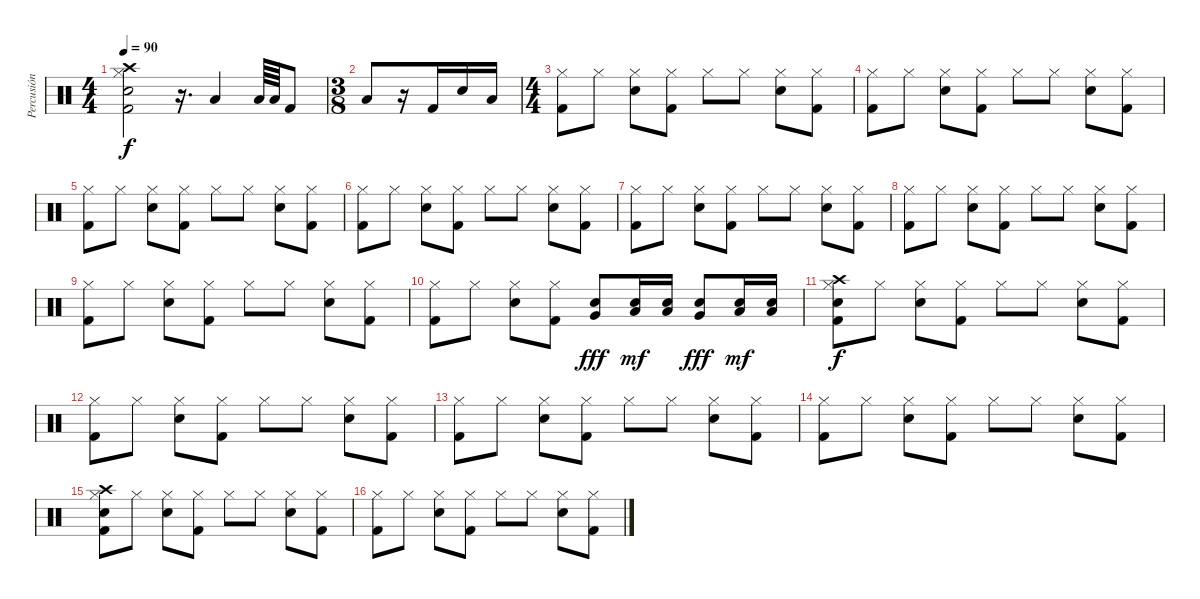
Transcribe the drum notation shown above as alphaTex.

\track ("Percusión" "Percusión") {instrument percussion}
\staff {score}
\articulation defaults
\ts (4 4)
\tempo 90
\clef neutral
\ks c
("Crash high (hit)" "Hi-Hat (closed)" "Snare (hit) 2" "Kick (hit) 2").2{dy f} r.16{d} "Low Tom (hit)".4 "Low Floor Tom (hit)".64 "Low Floor Tom (hit)".64 "Kick (hit) 2".8 |
\ts (3 8)
"Low Floor Tom (hit)".8 r.16 "Kick (hit) 2".16 "Snare (hit) 2".16 "Low Floor Tom (hit)".16 |
\ts (4 4)
("Hi-Hat (closed)" "Kick (hit) 2").8 "Hi-Hat (closed)".8 ("Hi-Hat (closed)" "Snare (hit) 2").8 ("Hi-Hat (closed)" "Kick (hit) 2").8 "Hi-Hat (closed)".8 "Hi-Hat (closed)".8 ("Hi-Hat (closed)" "Snare (hit) 2").8 ("Hi-Hat (closed)" "Kick (hit) 2").8 |
("Hi-Hat (closed)" "Kick (hit) 2").8 "Hi-Hat (closed)".8 ("Hi-Hat (closed)" "Snare (hit) 2").8 ("Hi-Hat (closed)" "Kick (hit) 2").8 "Hi-Hat (closed)".8 "Hi-Hat (closed)".8 ("Hi-Hat (closed)" "Snare (hit) 2").8 ("Hi-Hat (closed)" "Kick (hit) 2").8 |
("Hi-Hat (closed)" "Kick (hit) 2").8 "Hi-Hat (closed)".8 ("Hi-Hat (closed)" "Snare (hit) 2").8 ("Hi-Hat (closed)" "Kick (hit) 2").8 "Hi-Hat (closed)".8 "Hi-Hat (closed)".8 ("Hi-Hat (closed)" "Snare (hit) 2").8 ("Hi-Hat (closed)" "Kick (hit) 2").8 |
("Hi-Hat (closed)" "Kick (hit) 2").8 "Hi-Hat (closed)".8 ("Hi-Hat (closed)" "Snare (hit) 2").8 ("Hi-Hat (closed)" "Kick (hit) 2").8 "Hi-Hat (closed)".8 "Hi-Hat (closed)".8 ("Hi-Hat (closed)" "Snare (hit) 2").8 ("Hi-Hat (closed)" "Kick (hit) 2").8 |
("Hi-Hat (closed)" "Kick (hit) 2").8 "Hi-Hat (closed)".8 ("Hi-Hat (closed)" "Snare (hit) 2").8 ("Hi-Hat (closed)" "Kick (hit) 2").8 "Hi-Hat (closed)".8 "Hi-Hat (closed)".8 ("Hi-Hat (closed)" "Snare (hit) 2").8 ("Hi-Hat (closed)" "Kick (hit) 2").8 |
("Hi-Hat (closed)" "Kick (hit) 2").8 "Hi-Hat (closed)".8 ("Hi-Hat (closed)" "Snare (hit) 2").8 ("Hi-Hat (closed)" "Kick (hit) 2").8 "Hi-Hat (closed)".8 "Hi-Hat (closed)".8 ("Hi-Hat (closed)" "Snare (hit) 2").8 ("Hi-Hat (closed)" "Kick (hit) 2").8 |
("Hi-Hat (closed)" "Kick (hit) 2").8 "Hi-Hat (closed)".8 ("Hi-Hat (closed)" "Snare (hit) 2").8 ("Hi-Hat (closed)" "Kick (hit) 2").8 "Hi-Hat (closed)".8 "Hi-Hat (closed)".8 ("Hi-Hat (closed)" "Snare (hit) 2").8 ("Hi-Hat (closed)" "Kick (hit) 2").8 |
("Hi-Hat (closed)" "Kick (hit) 2").8 "Hi-Hat (closed)".8 ("Hi-Hat (closed)" "Snare (hit) 2").8 ("Hi-Hat (closed)" "Kick (hit) 2").8 ("Snare (hit) 2" "Very Low Tom (hit)").8{dy fff} ("Low Tom (hit)" "Snare (hit) 2").16{dy mf} ("Low Tom (hit)" "Snare (hit) 2").16 ("Snare (hit) 2" "Very Low Tom (hit)").8{dy fff} ("Low Tom (hit)" "Snare (hit) 2").16{dy mf} ("Low Tom (hit)" "Snare (hit) 2").16 |
("Crash high (hit)" "Hi-Hat (closed)" "Snare (hit) 2" "Kick (hit) 2").8{dy f} "Hi-Hat (closed)".8 ("Hi-Hat (closed)" "Snare (hit) 2").8 ("Hi-Hat (closed)" "Kick (hit) 2").8 "Hi-Hat (closed)".8 "Hi-Hat (closed)".8 ("Hi-Hat (closed)" "Snare (hit) 2").8 ("Hi-Hat (closed)" "Kick (hit) 2").8 |
("Hi-Hat (closed)" "Kick (hit) 2").8 "Hi-Hat (closed)".8 ("Hi-Hat (closed)" "Snare (hit) 2").8 ("Hi-Hat (closed)" "Kick (hit) 2").8 "Hi-Hat (closed)".8 "Hi-Hat (closed)".8 ("Hi-Hat (closed)" "Snare (hit) 2").8 ("Hi-Hat (closed)" "Kick (hit) 2").8 |
("Hi-Hat (closed)" "Kick (hit) 2").8 "Hi-Hat (closed)".8 ("Hi-Hat (closed)" "Snare (hit) 2").8 ("Hi-Hat (closed)" "Kick (hit) 2").8 "Hi-Hat (closed)".8 "Hi-Hat (closed)".8 ("Hi-Hat (closed)" "Snare (hit) 2").8 ("Hi-Hat (closed)" "Kick (hit) 2").8 |
("Hi-Hat (closed)" "Kick (hit) 2").8 "Hi-Hat (closed)".8 ("Hi-Hat (closed)" "Snare (hit) 2").8 ("Hi-Hat (closed)" "Kick (hit) 2").8 "Hi-Hat (closed)".8 "Hi-Hat (closed)".8 ("Hi-Hat (closed)" "Snare (hit) 2").8 ("Hi-Hat (closed)" "Kick (hit) 2").8 |
("Crash high (hit)" "Hi-Hat (closed)" "Snare (hit) 2" "Kick (hit) 2").8 "Hi-Hat (closed)".8 ("Hi-Hat (closed)" "Snare (hit) 2").8 ("Hi-Hat (closed)" "Kick (hit) 2").8 "Hi-Hat (closed)".8 "Hi-Hat (closed)".8 ("Hi-Hat (closed)" "Snare (hit) 2").8 ("Hi-Hat (closed)" "Kick (hit) 2").8 |
("Hi-Hat (closed)" "Kick (hit) 2").8 "Hi-Hat (closed)".8 ("Hi-Hat (closed)" "Snare (hit) 2").8 ("Hi-Hat (closed)" "Kick (hit) 2").8 "Hi-Hat (closed)".8 "Hi-Hat (closed)".8 ("Hi-Hat (closed)" "Snare (hit) 2").8 ("Hi-Hat (closed)" "Kick (hit) 2").8
